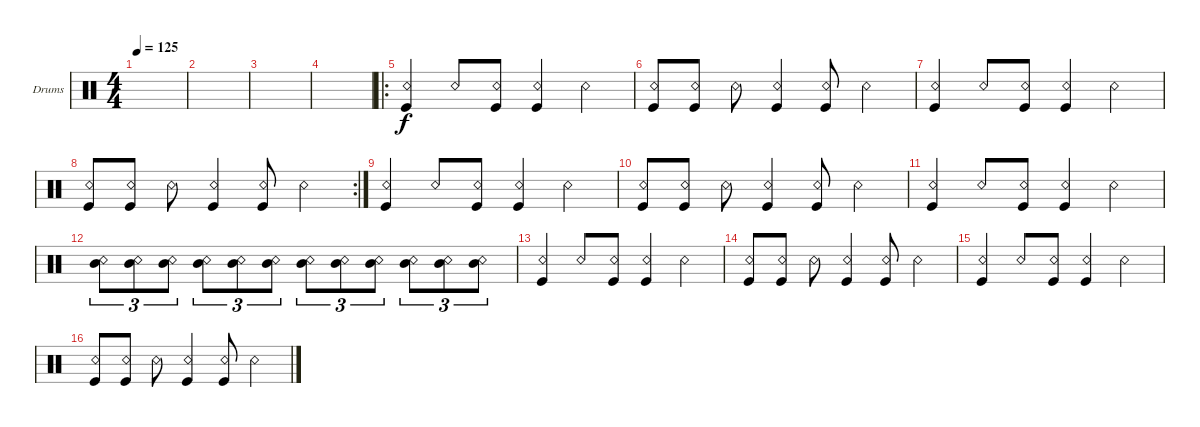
\defaultSystemsLayout 4
\bracketExtendMode groupsimilarinstruments
\firstSystemTrackNameOrientation horizontal
\otherSystemsTrackNameOrientation horizontal
\track ("Drumkit" "Drums") {instrument percussion}
\staff {score}
\articulation defaults
\ts (4 4)
\tempo 125
\clef neutral
\scale
0.472222
\ks c
|
\scale
0.263889 |
\scale
0.263889 |
\scale
0.311475 |
\ro
\scale
0.377049 ("Kick (hit)" "Snare (rim shot)").4 "Snare (rim shot)".8 ("Kick (hit)" "Snare (rim shot)").8 ("Kick (hit)" "Snare (rim shot)").4 "Snare (rim shot)".4 |
\scale
0.311475 ("Snare (rim shot)" "Kick (hit)").8 ("Snare (rim shot)" "Kick (hit)").8 "Snare (rim shot)".8 ("Snare (rim shot)" "Kick (hit)").4 ("Snare (rim shot)" "Kick (hit)").8 "Snare (rim shot)".4 |
\scale
0.322034 ("Kick (hit)" "Snare (rim shot)").4 "Snare (rim shot)".8 ("Kick (hit)" "Snare (rim shot)").8 ("Kick (hit)" "Snare (rim shot)").4 "Snare (rim shot)".4 |
\rc 2
\scale
0.355932 ("Snare (rim shot)" "Kick (hit)").8 ("Snare (rim shot)" "Kick (hit)").8 "Snare (rim shot)".8 ("Snare (rim shot)" "Kick (hit)").4 ("Snare (rim shot)" "Kick (hit)").8 "Snare (rim shot)".4 |
\scale
0.322034 ("Kick (hit)" "Snare (rim shot)").4 "Snare (rim shot)".8 ("Kick (hit)" "Snare (rim shot)").8 ("Kick (hit)" "Snare (rim shot)").4 "Snare (rim shot)".4 |
\scale
0.333333 ("Snare (rim shot)" "Kick (hit)").8 ("Snare (rim shot)" "Kick (hit)").8 "Snare (rim shot)".8 ("Snare (rim shot)" "Kick (hit)").4 ("Snare (rim shot)" "Kick (hit)").8 "Snare (rim shot)".4 |
\scale
0.333333 ("Kick (hit)" "Snare (rim shot)").4 "Snare (rim shot)".8 ("Kick (hit)" "Snare (rim shot)").8 ("Kick (hit)" "Snare (rim shot)").4 "Snare (rim shot)".4 |
\scale
0.333333 ("Mid Tom (hit)" "Snare (rim shot)").8{tu (3 2)} ("Mid Tom (hit)" "Snare (rim shot)").8{tu (3 2)} ("Mid Tom (hit)" "Snare (rim shot)").8{tu (3 2)} ("Mid Tom (hit)" "Snare (rim shot)").8{tu (3 2)} ("Mid Tom (hit)" "Snare (rim shot)").8{tu (3 2)} ("Mid Tom (hit)" "Snare (rim shot)").8{tu (3 2)} ("Mid Tom (hit)" "Snare (rim shot)").8{tu (3 2)} ("Mid Tom (hit)" "Snare (rim shot)").8{tu (3 2)} ("Mid Tom (hit)" "Snare (rim shot)").8{tu (3 2)} ("Mid Tom (hit)" "Snare (rim shot)").8{tu (3 2)} ("Mid Tom (hit)" "Snare (rim shot)").8{tu (3 2)} ("Mid Tom (hit)" "Snare (rim shot)").8{tu (3 2)} |
\scale
0.333333 ("Kick (hit)" "Snare (rim shot)").4 "Snare (rim shot)".8 ("Kick (hit)" "Snare (rim shot)").8 ("Kick (hit)" "Snare (rim shot)").4 "Snare (rim shot)".4 |
\scale
0.333333 ("Snare (rim shot)" "Kick (hit)").8 ("Snare (rim shot)" "Kick (hit)").8 "Snare (rim shot)".8 ("Snare (rim shot)" "Kick (hit)").4 ("Snare (rim shot)" "Kick (hit)").8 "Snare (rim shot)".4 |
\scale
0.333333 ("Kick (hit)" "Snare (rim shot)").4 "Snare (rim shot)".8 ("Kick (hit)" "Snare (rim shot)").8 ("Kick (hit)" "Snare (rim shot)").4 "Snare (rim shot)".4 |
\scale
0.333333 ("Snare (rim shot)" "Kick (hit)").8 ("Snare (rim shot)" "Kick (hit)").8 "Snare (rim shot)".8 ("Snare (rim shot)" "Kick (hit)").4 ("Snare (rim shot)" "Kick (hit)").8 "Snare (rim shot)".4
